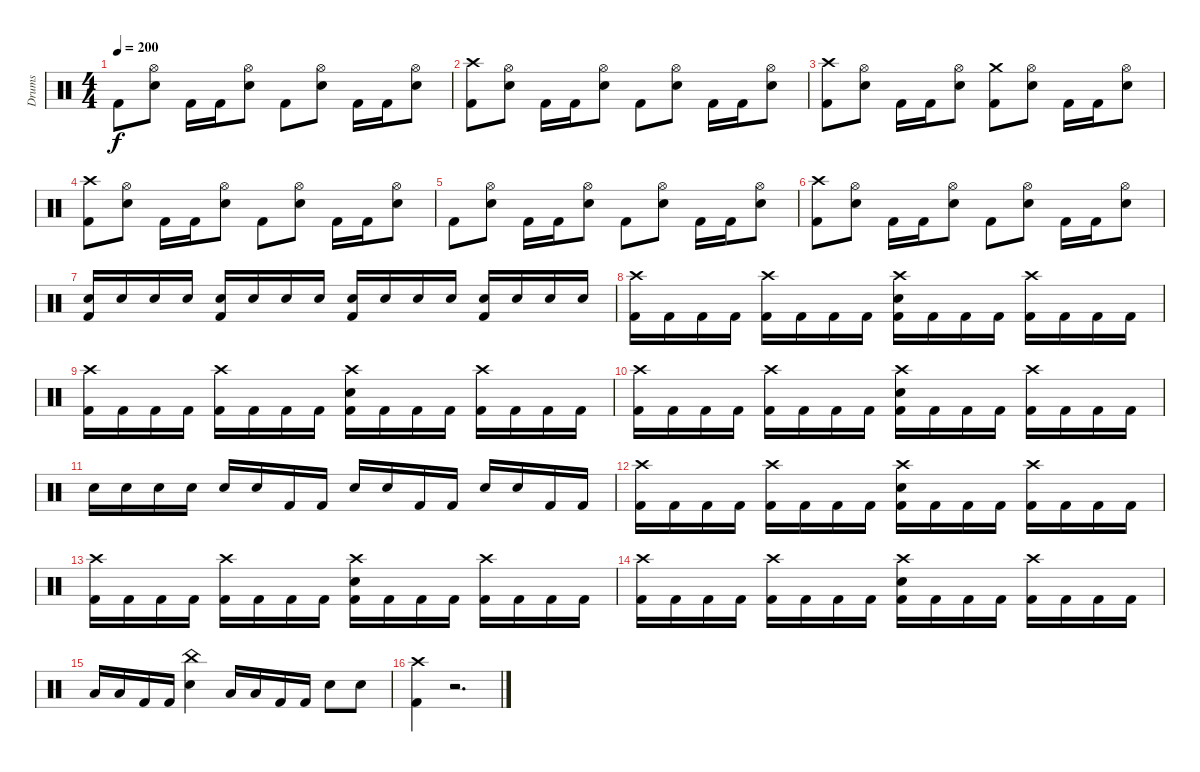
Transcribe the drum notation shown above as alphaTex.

\track ("Drums" "Drums") {instrument percussion}
\staff {score}
\articulation defaults
\ts (4 4)
\tempo 200
\clef neutral
\ks c "Kick (hit) 2".8{dy f}
("Hi-Hat (open)" "Electric Snare (hit)").8 "Kick (hit) 2".16 "Kick (hit) 2".16 ("Hi-Hat (open)" "Electric Snare (hit)").8 "Kick (hit) 2".8 ("Hi-Hat (open)" "Electric Snare (hit)").8 "Kick (hit) 2".16 "Kick (hit) 2".16 ("Hi-Hat (open)" "Electric Snare (hit)").8 |
("Crash high (hit)" "Kick (hit) 2").8 ("Hi-Hat (open)" "Electric Snare (hit)").8 "Kick (hit) 2".16 "Kick (hit) 2".16 ("Hi-Hat (open)" "Electric Snare (hit)").8 "Kick (hit) 2".8 ("Hi-Hat (open)" "Electric Snare (hit)").8 "Kick (hit) 2".16 "Kick (hit) 2".16 ("Hi-Hat (open)" "Electric Snare (hit)").8 |
("Crash high (hit)" "Kick (hit) 2").8 ("Hi-Hat (open)" "Electric Snare (hit)").8 "Kick (hit) 2".16 "Kick (hit) 2".16 ("Hi-Hat (open)" "Electric Snare (hit)").8 ("Crash medium (hit)" "Kick (hit) 2").8 ("Hi-Hat (open)" "Electric Snare (hit)").8 "Kick (hit) 2".16 "Kick (hit) 2".16 ("Hi-Hat (open)" "Electric Snare (hit)").8 |
("Crash high (hit)" "Kick (hit) 2").8 ("Hi-Hat (open)" "Electric Snare (hit)").8 "Kick (hit) 2".16 "Kick (hit) 2".16 ("Hi-Hat (open)" "Electric Snare (hit)").8 "Kick (hit) 2".8 ("Hi-Hat (open)" "Electric Snare (hit)").8 "Kick (hit) 2".16 "Kick (hit) 2".16 ("Hi-Hat (open)" "Electric Snare (hit)").8 |
"Kick (hit) 2".8 ("Hi-Hat (open)" "Electric Snare (hit)").8 "Kick (hit) 2".16 "Kick (hit) 2".16 ("Hi-Hat (open)" "Electric Snare (hit)").8 "Kick (hit) 2".8 ("Hi-Hat (open)" "Electric Snare (hit)").8 "Kick (hit) 2".16 "Kick (hit) 2".16 ("Hi-Hat (open)" "Electric Snare (hit)").8 |
("Crash high (hit)" "Kick (hit) 2").8 ("Hi-Hat (open)" "Electric Snare (hit)").8 "Kick (hit) 2".16 "Kick (hit) 2".16 ("Hi-Hat (open)" "Electric Snare (hit)").8 "Kick (hit) 2".8 ("Hi-Hat (open)" "Electric Snare (hit)").8 "Kick (hit) 2".16 "Kick (hit) 2".16 ("Hi-Hat (open)" "Electric Snare (hit)").8 |
("Electric Snare (hit)" "Kick (hit) 2").16 "Electric Snare (hit)".16 "Electric Snare (hit)".16 "Electric Snare (hit)".16 ("Electric Snare (hit)" "Kick (hit) 2").16 "Electric Snare (hit)".16 "Electric Snare (hit)".16 "Electric Snare (hit)".16 ("Electric Snare (hit)" "Kick (hit) 2").16 "Electric Snare (hit)".16 "Electric Snare (hit)".16 "Electric Snare (hit)".16 ("Electric Snare (hit)" "Kick (hit) 2").16 "Electric Snare (hit)".16 "Electric Snare (hit)".16 "Electric Snare (hit)".16 |
("Crash high (hit)" "Kick (hit) 2").16 "Kick (hit) 2".16 "Kick (hit) 2".16 "Kick (hit) 2".16 ("Crash high (hit)" "Kick (hit) 2").16 "Kick (hit) 2".16 "Kick (hit) 2".16 "Kick (hit) 2".16 ("Crash high (hit)" "Electric Snare (hit)" "Kick (hit) 2").16 "Kick (hit) 2".16 "Kick (hit) 2".16 "Kick (hit) 2".16 ("Crash high (hit)" "Kick (hit) 2").16 "Kick (hit) 2".16 "Kick (hit) 2".16 "Kick (hit) 2".16 |
("Crash high (hit)" "Kick (hit) 2").16 "Kick (hit) 2".16 "Kick (hit) 2".16 "Kick (hit) 2".16 ("Crash high (hit)" "Kick (hit) 2").16 "Kick (hit) 2".16 "Kick (hit) 2".16 "Kick (hit) 2".16 ("Crash high (hit)" "Electric Snare (hit)" "Kick (hit) 2").16 "Kick (hit) 2".16 "Kick (hit) 2".16 "Kick (hit) 2".16 ("Crash high (hit)" "Kick (hit) 2").16 "Kick (hit) 2".16 "Kick (hit) 2".16 "Kick (hit) 2".16 |
("Crash high (hit)" "Kick (hit) 2").16 "Kick (hit) 2".16 "Kick (hit) 2".16 "Kick (hit) 2".16 ("Crash high (hit)" "Kick (hit) 2").16 "Kick (hit) 2".16 "Kick (hit) 2".16 "Kick (hit) 2".16 ("Crash high (hit)" "Electric Snare (hit)" "Kick (hit) 2").16 "Kick (hit) 2".16 "Kick (hit) 2".16 "Kick (hit) 2".16 ("Crash high (hit)" "Kick (hit) 2").16 "Kick (hit) 2".16 "Kick (hit) 2".16 "Kick (hit) 2".16 |
"Electric Snare (hit)".16 "Electric Snare (hit)".16 "Electric Snare (hit)".16 "Electric Snare (hit)".16 "Electric Snare (hit)".16 "Electric Snare (hit)".16 "Kick (hit) 2".16 "Kick (hit) 2".16 "Electric Snare (hit)".16 "Electric Snare (hit)".16 "Kick (hit) 2".16 "Kick (hit) 2".16 "Electric Snare (hit)".16 "Electric Snare (hit)".16 "Kick (hit) 2".16 "Kick (hit) 2".16 |
("Crash high (hit)" "Kick (hit) 2").16 "Kick (hit) 2".16 "Kick (hit) 2".16 "Kick (hit) 2".16 ("Crash high (hit)" "Kick (hit) 2").16 "Kick (hit) 2".16 "Kick (hit) 2".16 "Kick (hit) 2".16 ("Crash high (hit)" "Electric Snare (hit)" "Kick (hit) 2").16 "Kick (hit) 2".16 "Kick (hit) 2".16 "Kick (hit) 2".16 ("Crash high (hit)" "Kick (hit) 2").16 "Kick (hit) 2".16 "Kick (hit) 2".16 "Kick (hit) 2".16 |
("Crash high (hit)" "Kick (hit) 2").16 "Kick (hit) 2".16 "Kick (hit) 2".16 "Kick (hit) 2".16 ("Crash high (hit)" "Kick (hit) 2").16 "Kick (hit) 2".16 "Kick (hit) 2".16 "Kick (hit) 2".16 ("Crash high (hit)" "Electric Snare (hit)" "Kick (hit) 2").16 "Kick (hit) 2".16 "Kick (hit) 2".16 "Kick (hit) 2".16 ("Crash high (hit)" "Kick (hit) 2").16 "Kick (hit) 2".16 "Kick (hit) 2".16 "Kick (hit) 2".16 |
("Crash high (hit)" "Kick (hit) 2").16 "Kick (hit) 2".16 "Kick (hit) 2".16 "Kick (hit) 2".16 ("Crash high (hit)" "Kick (hit) 2").16 "Kick (hit) 2".16 "Kick (hit) 2".16 "Kick (hit) 2".16 ("Crash high (hit)" "Electric Snare (hit)" "Kick (hit) 2").16 "Kick (hit) 2".16 "Kick (hit) 2".16 "Kick (hit) 2".16 ("Crash high (hit)" "Kick (hit) 2").16 "Kick (hit) 2".16 "Kick (hit) 2".16 "Kick (hit) 2".16 |
"Low Tom (hit)".16 "Low Tom (hit)".16 "Kick (hit) 2".16 "Kick (hit) 2".16 ("China (hit)" "Electric Snare (hit)").4 "Low Tom (hit)".16 "Low Tom (hit)".16 "Kick (hit) 2".16 "Kick (hit) 2".16 "Electric Snare (hit)".8 "Electric Snare (hit)".8 |
("Crash high (hit)" "Kick (hit) 2").4 r.2{d volume 0}
